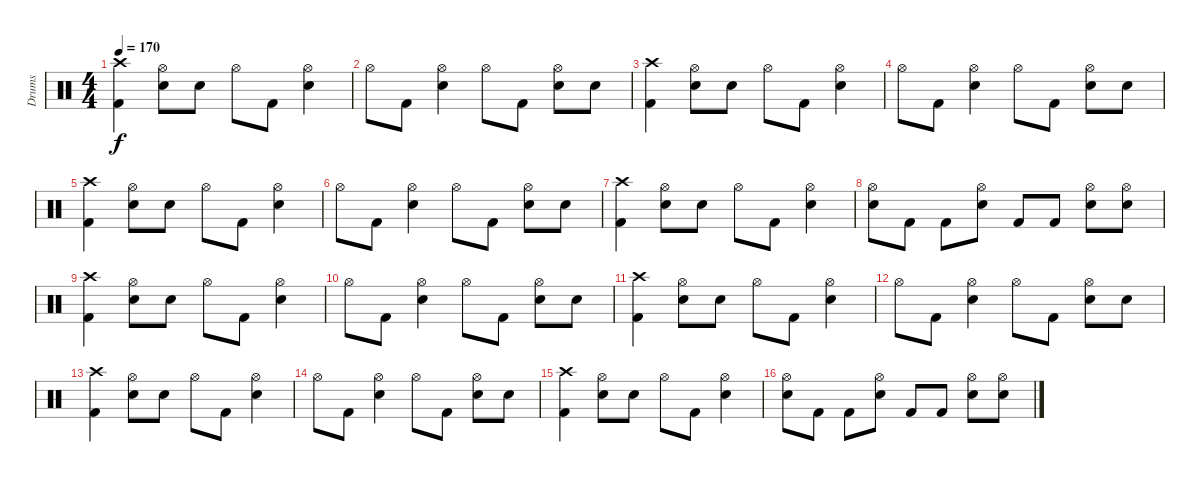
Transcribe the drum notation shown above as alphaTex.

\track ("Drums" "Drums") {instrument percussion}
\staff {score}
\articulation defaults
\ts (4 4)
\tempo 170
\clef neutral
\ks c
("Crash high (hit)" "Kick (hit) 2").4{dy f} ("Hi-Hat (open)" "Electric Snare (hit)").8 "Electric Snare (hit)".8 "Hi-Hat (open)".8 "Kick (hit) 2".8 ("Hi-Hat (open)" "Electric Snare (hit)").4 |
"Hi-Hat (open)".8 "Kick (hit) 2".8 ("Hi-Hat (open)" "Electric Snare (hit)").4 "Hi-Hat (open)".8 "Kick (hit) 2".8 ("Hi-Hat (open)" "Electric Snare (hit)").8 "Electric Snare (hit)".8 |
("Crash high (hit)" "Kick (hit) 2").4 ("Hi-Hat (open)" "Electric Snare (hit)").8 "Electric Snare (hit)".8 "Hi-Hat (open)".8 "Kick (hit) 2".8 ("Hi-Hat (open)" "Electric Snare (hit)").4 |
"Hi-Hat (open)".8 "Kick (hit) 2".8 ("Hi-Hat (open)" "Electric Snare (hit)").4 "Hi-Hat (open)".8 "Kick (hit) 2".8 ("Hi-Hat (open)" "Electric Snare (hit)").8 "Electric Snare (hit)".8 |
("Crash high (hit)" "Kick (hit) 2").4 ("Hi-Hat (open)" "Electric Snare (hit)").8 "Electric Snare (hit)".8 "Hi-Hat (open)".8 "Kick (hit) 2".8 ("Hi-Hat (open)" "Electric Snare (hit)").4 |
"Hi-Hat (open)".8 "Kick (hit) 2".8 ("Hi-Hat (open)" "Electric Snare (hit)").4 "Hi-Hat (open)".8 "Kick (hit) 2".8 ("Hi-Hat (open)" "Electric Snare (hit)").8 "Electric Snare (hit)".8 |
("Crash high (hit)" "Kick (hit) 2").4 ("Hi-Hat (open)" "Electric Snare (hit)").8 "Electric Snare (hit)".8 "Hi-Hat (open)".8 "Kick (hit) 2".8 ("Hi-Hat (open)" "Electric Snare (hit)").4 |
("Hi-Hat (open)" "Electric Snare (hit)").8 "Kick (hit) 2".8 "Kick (hit) 2".8 ("Hi-Hat (open)" "Electric Snare (hit)").8 "Kick (hit) 2".8 "Kick (hit) 2".8 ("Hi-Hat (open)" "Electric Snare (hit)").8 ("Hi-Hat (open)" "Electric Snare (hit)").8 |
("Crash high (hit)" "Kick (hit) 2").4 ("Hi-Hat (open)" "Electric Snare (hit)").8 "Electric Snare (hit)".8 "Hi-Hat (open)".8 "Kick (hit) 2".8 ("Hi-Hat (open)" "Electric Snare (hit)").4 |
"Hi-Hat (open)".8 "Kick (hit) 2".8 ("Hi-Hat (open)" "Electric Snare (hit)").4 "Hi-Hat (open)".8 "Kick (hit) 2".8 ("Hi-Hat (open)" "Electric Snare (hit)").8 "Electric Snare (hit)".8 |
("Crash high (hit)" "Kick (hit) 2").4 ("Hi-Hat (open)" "Electric Snare (hit)").8 "Electric Snare (hit)".8 "Hi-Hat (open)".8 "Kick (hit) 2".8 ("Hi-Hat (open)" "Electric Snare (hit)").4 |
"Hi-Hat (open)".8 "Kick (hit) 2".8 ("Hi-Hat (open)" "Electric Snare (hit)").4 "Hi-Hat (open)".8 "Kick (hit) 2".8 ("Hi-Hat (open)" "Electric Snare (hit)").8 "Electric Snare (hit)".8 |
("Crash high (hit)" "Kick (hit) 2").4 ("Hi-Hat (open)" "Electric Snare (hit)").8 "Electric Snare (hit)".8 "Hi-Hat (open)".8 "Kick (hit) 2".8 ("Hi-Hat (open)" "Electric Snare (hit)").4 |
"Hi-Hat (open)".8 "Kick (hit) 2".8 ("Hi-Hat (open)" "Electric Snare (hit)").4 "Hi-Hat (open)".8 "Kick (hit) 2".8 ("Hi-Hat (open)" "Electric Snare (hit)").8 "Electric Snare (hit)".8 |
("Crash high (hit)" "Kick (hit) 2").4 ("Hi-Hat (open)" "Electric Snare (hit)").8 "Electric Snare (hit)".8 "Hi-Hat (open)".8 "Kick (hit) 2".8 ("Hi-Hat (open)" "Electric Snare (hit)").4 |
("Hi-Hat (open)" "Electric Snare (hit)").8 "Kick (hit) 2".8 "Kick (hit) 2".8 ("Hi-Hat (open)" "Electric Snare (hit)").8 "Kick (hit) 2".8 "Kick (hit) 2".8 ("Hi-Hat (open)" "Electric Snare (hit)").8 ("Hi-Hat (open)" "Electric Snare (hit)").8
